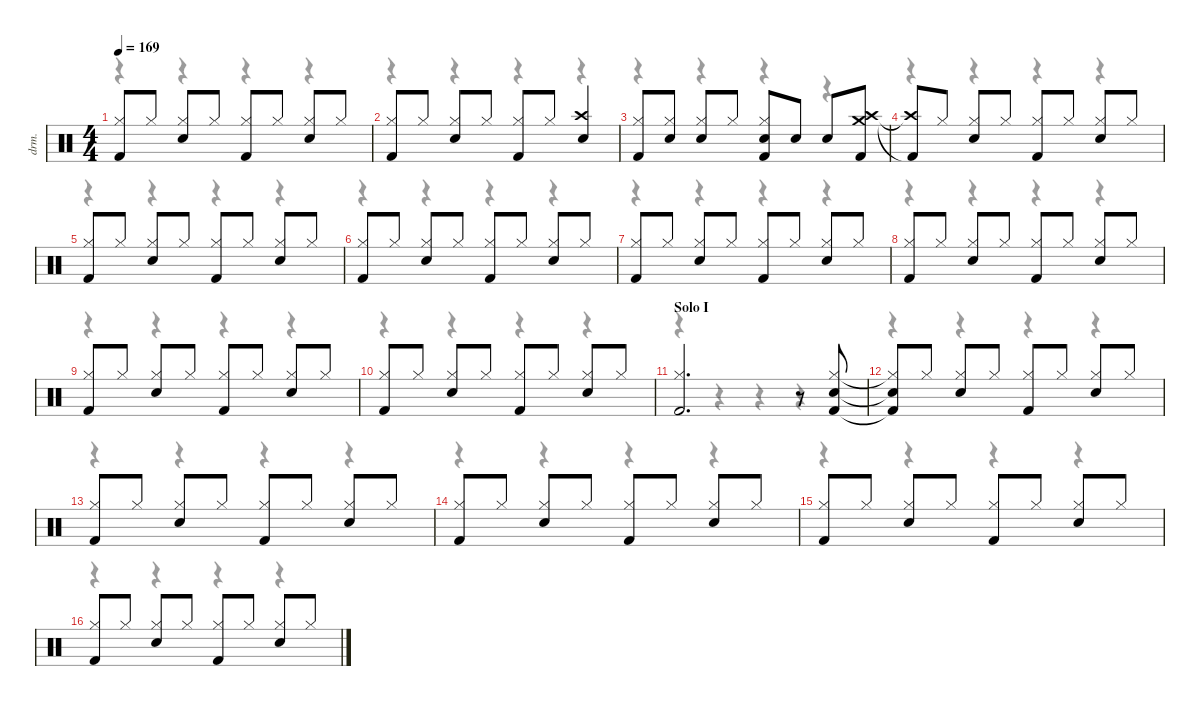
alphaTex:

\defaultSystemsLayout 4
\hideDynamics
\bracketExtendMode nobrackets
\otherSystemsTrackNameOrientation horizontal
\track ("Drums" "drm.") {instrument percussion}
\staff {score}
\articulation defaults
\voice
\ts (4 4)
\tempo 169
\clef neutral
\ks c
("Hi-Hat (closed)" "Kick (hit) 2").8{dy f} "Hi-Hat (closed)".8 ("Hi-Hat (closed)" "Snare (hit) 2").8 "Hi-Hat (closed)".8 ("Hi-Hat (closed)" "Kick (hit) 2").8 "Hi-Hat (closed)".8 ("Hi-Hat (closed)" "Snare (hit) 2").8 "Hi-Hat (closed)".8 |
("Hi-Hat (closed)" "Kick (hit) 2").8 "Hi-Hat (closed)".8 ("Hi-Hat (closed)" "Snare (hit) 2").8 "Hi-Hat (closed)".8 ("Hi-Hat (closed)" "Kick (hit) 2").8 "Hi-Hat (closed)".8 ("Crash high (hit)" "Snare (hit) 2").4{dy ff} |
("Hi-Hat (closed)" "Kick (hit) 2").8{dy f} ("Hi-Hat (closed)" "Snare (hit) 2").8 ("Hi-Hat (closed)" "Snare (hit) 2").8 "Hi-Hat (closed)".8 ("Hi-Hat (closed)" "Snare (hit) 2" "Kick (hit) 2").8 "Snare (hit) 2".8 "Snare (hit) 2".8 ("Crash high (hit)" "Crash medium (hit)" "Kick (hit) 2").8 |
("Crash high (hit)"{t} "Kick (hit) 2"{t}).8 "Hi-Hat (closed)".8 ("Hi-Hat (closed)" "Snare (hit) 2").8 "Hi-Hat (closed)".8 ("Hi-Hat (closed)" "Kick (hit) 2").8 "Hi-Hat (closed)".8 ("Hi-Hat (closed)" "Snare (hit) 2").8 "Hi-Hat (closed)".8 |
("Hi-Hat (closed)" "Kick (hit) 2").8 "Hi-Hat (closed)".8 ("Hi-Hat (closed)" "Snare (hit) 2").8 "Hi-Hat (closed)".8 ("Hi-Hat (closed)" "Kick (hit) 2").8 "Hi-Hat (closed)".8 ("Hi-Hat (closed)" "Snare (hit) 2").8 "Hi-Hat (closed)".8 |
("Hi-Hat (closed)" "Kick (hit) 2").8 "Hi-Hat (closed)".8 ("Hi-Hat (closed)" "Snare (hit) 2").8 "Hi-Hat (closed)".8 ("Hi-Hat (closed)" "Kick (hit) 2").8 "Hi-Hat (closed)".8 ("Hi-Hat (closed)" "Snare (hit) 2").8 "Hi-Hat (closed)".8 |
("Hi-Hat (closed)" "Kick (hit) 2").8 "Hi-Hat (closed)".8 ("Hi-Hat (closed)" "Snare (hit) 2").8 "Hi-Hat (closed)".8 ("Hi-Hat (closed)" "Kick (hit) 2").8 "Hi-Hat (closed)".8 ("Hi-Hat (closed)" "Snare (hit) 2").8 "Hi-Hat (closed)".8 |
("Hi-Hat (closed)" "Kick (hit) 2").8 "Hi-Hat (closed)".8 ("Hi-Hat (closed)" "Snare (hit) 2").8 "Hi-Hat (closed)".8 ("Hi-Hat (closed)" "Kick (hit) 2").8 "Hi-Hat (closed)".8 ("Hi-Hat (closed)" "Snare (hit) 2").8 "Hi-Hat (closed)".8 |
("Hi-Hat (closed)" "Kick (hit) 2").8 "Hi-Hat (closed)".8 ("Hi-Hat (closed)" "Snare (hit) 2").8 "Hi-Hat (closed)".8 ("Hi-Hat (closed)" "Kick (hit) 2").8 "Hi-Hat (closed)".8 ("Hi-Hat (closed)" "Snare (hit) 2").8 "Hi-Hat (closed)".8 |
("Hi-Hat (closed)" "Kick (hit) 2").8 "Hi-Hat (closed)".8 ("Hi-Hat (closed)" "Snare (hit) 2").8 "Hi-Hat (closed)".8 ("Hi-Hat (closed)" "Kick (hit) 2").8 "Hi-Hat (closed)".8 ("Hi-Hat (closed)" "Snare (hit) 2").8 "Hi-Hat (closed)".8 |
\section ("" "Solo I")
("Hi-Hat (closed)" "Kick (hit) 2").2{d} r.8 ("Hi-Hat (closed)" "Snare (hit) 2" "Kick (hit) 2").8{dy ff} |
("Hi-Hat (closed)"{t} "Snare (hit) 2"{t} "Kick (hit) 2"{t}).8{dy f} "Hi-Hat (closed)".8 ("Hi-Hat (closed)" "Snare (hit) 2").8 "Hi-Hat (closed)".8 ("Hi-Hat (closed)" "Kick (hit) 2").8 "Hi-Hat (closed)".8 ("Hi-Hat (closed)" "Snare (hit) 2").8 "Hi-Hat (closed)".8 |
("Hi-Hat (closed)" "Kick (hit) 2").8 "Hi-Hat (closed)".8 ("Hi-Hat (closed)" "Snare (hit) 2").8 "Hi-Hat (closed)".8 ("Hi-Hat (closed)" "Kick (hit) 2").8 "Hi-Hat (closed)".8 ("Hi-Hat (closed)" "Snare (hit) 2").8 "Hi-Hat (closed)".8 |
("Hi-Hat (closed)" "Kick (hit) 2").8 "Hi-Hat (closed)".8 ("Hi-Hat (closed)" "Snare (hit) 2").8 "Hi-Hat (closed)".8 ("Hi-Hat (closed)" "Kick (hit) 2").8 "Hi-Hat (closed)".8 ("Hi-Hat (closed)" "Snare (hit) 2").8 "Hi-Hat (closed)".8 |
("Hi-Hat (closed)" "Kick (hit) 2").8 "Hi-Hat (closed)".8 ("Hi-Hat (closed)" "Snare (hit) 2").8 "Hi-Hat (closed)".8 ("Hi-Hat (closed)" "Kick (hit) 2").8 "Hi-Hat (closed)".8 ("Hi-Hat (closed)" "Snare (hit) 2").8 "Hi-Hat (closed)".8 |
("Hi-Hat (closed)" "Kick (hit) 2").8 "Hi-Hat (closed)".8 ("Hi-Hat (closed)" "Snare (hit) 2").8 "Hi-Hat (closed)".8 ("Hi-Hat (closed)" "Kick (hit) 2").8 "Hi-Hat (closed)".8 ("Hi-Hat (closed)" "Snare (hit) 2").8 "Hi-Hat (closed)".8
\voice
\clef neutral
\ottava regular
\simile none
\ks c
r.4{dy mf} r.4 r.4 r.4 |
r.4 r.4 r.4 r.4 |
r.4 r.4 r.4 r.4 |
r.4 r.4 r.4 r.4 |
r.4 r.4 r.4 r.4 |
r.4 r.4 r.4 r.4 |
r.4 r.4 r.4 r.4 |
r.4 r.4 r.4 r.4 |
r.4 r.4 r.4 r.4 |
r.4 r.4 r.4 r.4 |
r.4 r.4 r.4 r.4 |
r.4 r.4 r.4 r.4 |
r.4 r.4 r.4 r.4 |
r.4 r.4 r.4 r.4 |
r.4 r.4 r.4 r.4 |
r.4 r.4 r.4 r.4
